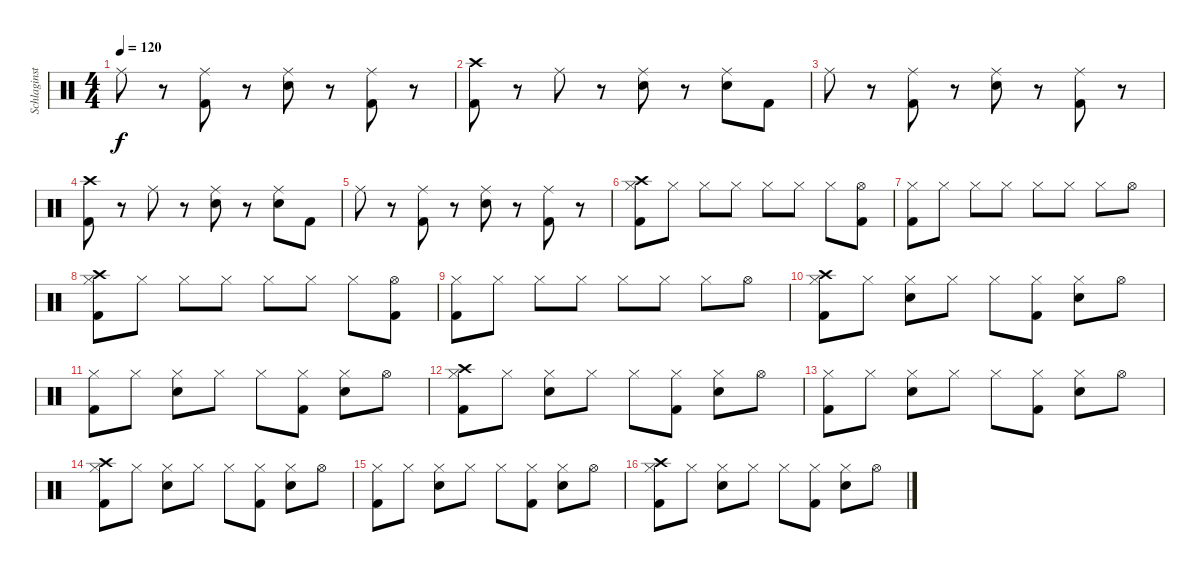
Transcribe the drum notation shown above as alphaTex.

\track ("Schlaginstrumente - Auswahl" "Schlaginst") {instrument percussion}
\staff {score}
\articulation defaults
\ts (4 4)
\tempo 120
\clef neutral
\ks c "Ride (middle)".8{dy f}
r.8 ("Ride (middle)" "Kick (hit) 2").8 r.8 ("Ride (middle)" "Snare (hit) 2").8 r.8 ("Ride (middle)" "Kick (hit) 2").8 r.8 |
("Crash high (hit)" "Kick (hit) 2").8 r.8 "Ride (middle)".8 r.8 ("Ride (middle)" "Snare (hit) 2").8 r.8 ("Ride (middle)" "Snare (hit) 2").8 "Kick (hit) 2".8 |
"Ride (middle)".8 r.8 ("Ride (middle)" "Kick (hit) 2").8 r.8 ("Ride (middle)" "Snare (hit) 2").8 r.8 ("Ride (middle)" "Kick (hit) 2").8 r.8 |
("Crash high (hit)" "Kick (hit) 2").8 r.8 "Ride (middle)".8 r.8 ("Ride (middle)" "Snare (hit) 2").8 r.8 ("Ride (middle)" "Snare (hit) 2").8 "Kick (hit) 2".8 |
"Ride (middle)".8 r.8 ("Ride (middle)" "Kick (hit) 2").8 r.8 ("Ride (middle)" "Snare (hit) 2").8 r.8 ("Ride (middle)" "Kick (hit) 2").8 r.8 |
("Crash high (hit)" "Hi-Hat (closed)" "Kick (hit) 2").8 "Hi-Hat (closed)".8 "Hi-Hat (closed)".8 "Hi-Hat (closed)".8 "Hi-Hat (closed)".8 "Hi-Hat (closed)".8 "Hi-Hat (closed)".8 ("Hi-Hat (open)" "Kick (hit) 2").8 |
("Hi-Hat (closed)" "Kick (hit) 2").8 "Hi-Hat (closed)".8 "Hi-Hat (closed)".8 "Hi-Hat (closed)".8 "Hi-Hat (closed)".8 "Hi-Hat (closed)".8 "Hi-Hat (closed)".8 "Hi-Hat (open)".8 |
("Crash high (hit)" "Hi-Hat (closed)" "Kick (hit) 2").8 "Hi-Hat (closed)".8 "Hi-Hat (closed)".8 "Hi-Hat (closed)".8 "Hi-Hat (closed)".8 "Hi-Hat (closed)".8 "Hi-Hat (closed)".8 ("Hi-Hat (open)" "Kick (hit) 2").8 |
("Hi-Hat (closed)" "Kick (hit) 2").8 "Hi-Hat (closed)".8 "Hi-Hat (closed)".8 "Hi-Hat (closed)".8 "Hi-Hat (closed)".8 "Hi-Hat (closed)".8 "Hi-Hat (closed)".8 "Hi-Hat (open)".8 |
("Crash high (hit)" "Hi-Hat (closed)" "Kick (hit) 2").8 "Hi-Hat (closed)".8 ("Hi-Hat (closed)" "Snare (hit) 2").8 "Hi-Hat (closed)".8 "Hi-Hat (closed)".8 ("Hi-Hat (closed)" "Kick (hit) 2").8 ("Hi-Hat (closed)" "Snare (hit) 2").8 "Hi-Hat (open)".8 |
("Hi-Hat (closed)" "Kick (hit) 2").8 "Hi-Hat (closed)".8 ("Hi-Hat (closed)" "Snare (hit) 2").8 "Hi-Hat (closed)".8 "Hi-Hat (closed)".8 ("Hi-Hat (closed)" "Kick (hit) 2").8 ("Hi-Hat (closed)" "Snare (hit) 2").8 "Hi-Hat (open)".8 |
("Crash high (hit)" "Hi-Hat (closed)" "Kick (hit) 2").8 "Hi-Hat (closed)".8 ("Hi-Hat (closed)" "Snare (hit) 2").8 "Hi-Hat (closed)".8 "Hi-Hat (closed)".8 ("Hi-Hat (closed)" "Kick (hit) 2").8 ("Hi-Hat (closed)" "Snare (hit) 2").8 "Hi-Hat (open)".8 |
("Hi-Hat (closed)" "Kick (hit) 2").8 "Hi-Hat (closed)".8 ("Hi-Hat (closed)" "Snare (hit) 2").8 "Hi-Hat (closed)".8 "Hi-Hat (closed)".8 ("Hi-Hat (closed)" "Kick (hit) 2").8 ("Hi-Hat (closed)" "Snare (hit) 2").8 "Hi-Hat (open)".8 |
("Crash high (hit)" "Hi-Hat (closed)" "Kick (hit) 2").8 "Hi-Hat (closed)".8 ("Hi-Hat (closed)" "Snare (hit) 2").8 "Hi-Hat (closed)".8 "Hi-Hat (closed)".8 ("Hi-Hat (closed)" "Kick (hit) 2").8 ("Hi-Hat (closed)" "Snare (hit) 2").8 "Hi-Hat (open)".8 |
("Hi-Hat (closed)" "Kick (hit) 2").8 "Hi-Hat (closed)".8 ("Hi-Hat (closed)" "Snare (hit) 2").8 "Hi-Hat (closed)".8 "Hi-Hat (closed)".8 ("Hi-Hat (closed)" "Kick (hit) 2").8 ("Hi-Hat (closed)" "Snare (hit) 2").8 "Hi-Hat (open)".8 |
("Crash high (hit)" "Hi-Hat (closed)" "Kick (hit) 2").8 "Hi-Hat (closed)".8 ("Hi-Hat (closed)" "Snare (hit) 2").8 "Hi-Hat (closed)".8 "Hi-Hat (closed)".8 ("Hi-Hat (closed)" "Kick (hit) 2").8 ("Hi-Hat (closed)" "Snare (hit) 2").8 "Hi-Hat (open)".8
